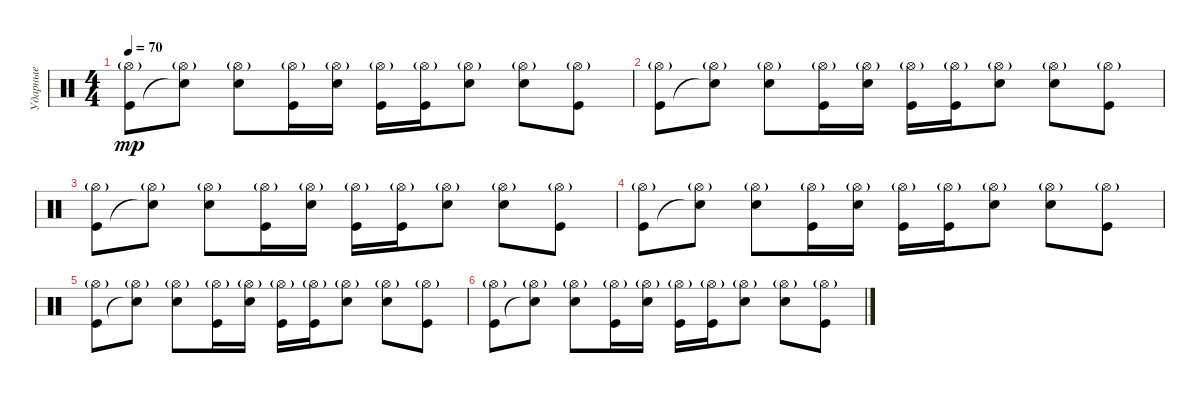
\track ("Ударные" "Ударные") {instrument percussion}
\staff {score}
\articulation defaults
\ts (4 4)
\tempo 70
\clef neutral
\ks c
("Hi-Hat (open)"{g} "Kick (hit)").8{dy mp} ("Hi-Hat (open)"{g} "Snare (hit)"{t}).8 ("Hi-Hat (open)"{g} "Snare (hit) 2").8 ("Hi-Hat (open)"{g} "Kick (hit)").16 ("Hi-Hat (open)"{g} "Snare (hit) 2").16 ("Hi-Hat (open)"{g} "Kick (hit)").16 ("Hi-Hat (open)"{g} "Kick (hit)").16 ("Hi-Hat (open)"{g} "Snare (hit) 2").8 ("Hi-Hat (open)"{g} "Snare (hit) 2").8 ("Hi-Hat (open)"{g} "Kick (hit)").8 |
("Hi-Hat (open)"{g} "Kick (hit)").8 ("Hi-Hat (open)"{g} "Snare (hit)"{t}).8 ("Hi-Hat (open)"{g} "Snare (hit) 2").8 ("Hi-Hat (open)"{g} "Kick (hit)").16 ("Hi-Hat (open)"{g} "Snare (hit) 2").16 ("Hi-Hat (open)"{g} "Kick (hit)").16 ("Hi-Hat (open)"{g} "Kick (hit)").16 ("Hi-Hat (open)"{g} "Snare (hit) 2").8 ("Hi-Hat (open)"{g} "Snare (hit) 2").8 ("Hi-Hat (open)"{g} "Kick (hit)").8 |
("Hi-Hat (open)"{g} "Kick (hit)").8 ("Hi-Hat (open)"{g} "Snare (hit)"{t}).8 ("Hi-Hat (open)"{g} "Snare (hit) 2").8 ("Hi-Hat (open)"{g} "Kick (hit)").16 ("Hi-Hat (open)"{g} "Snare (hit) 2").16 ("Hi-Hat (open)"{g} "Kick (hit)").16 ("Hi-Hat (open)"{g} "Kick (hit)").16 ("Hi-Hat (open)"{g} "Snare (hit) 2").8 ("Hi-Hat (open)"{g} "Snare (hit) 2").8 ("Hi-Hat (open)"{g} "Kick (hit)").8 |
("Hi-Hat (open)"{g} "Kick (hit)").8 ("Hi-Hat (open)"{g} "Snare (hit)"{t}).8 ("Hi-Hat (open)"{g} "Snare (hit) 2").8 ("Hi-Hat (open)"{g} "Kick (hit)").16 ("Hi-Hat (open)"{g} "Snare (hit) 2").16 ("Hi-Hat (open)"{g} "Kick (hit)").16 ("Hi-Hat (open)"{g} "Kick (hit)").16 ("Hi-Hat (open)"{g} "Snare (hit) 2").8 ("Hi-Hat (open)"{g} "Snare (hit) 2").8 ("Hi-Hat (open)"{g} "Kick (hit)").8 |
("Hi-Hat (open)"{g} "Kick (hit)").8 ("Hi-Hat (open)"{g} "Snare (hit)"{t}).8 ("Hi-Hat (open)"{g} "Snare (hit) 2").8 ("Hi-Hat (open)"{g} "Kick (hit)").16 ("Hi-Hat (open)"{g} "Snare (hit) 2").16 ("Hi-Hat (open)"{g} "Kick (hit)").16 ("Hi-Hat (open)"{g} "Kick (hit)").16 ("Hi-Hat (open)"{g} "Snare (hit) 2").8 ("Hi-Hat (open)"{g} "Snare (hit) 2").8 ("Hi-Hat (open)"{g} "Kick (hit)").8 |
("Hi-Hat (open)"{g} "Kick (hit)").8 ("Hi-Hat (open)"{g} "Snare (hit)"{t}).8 ("Hi-Hat (open)"{g} "Snare (hit) 2").8 ("Hi-Hat (open)"{g} "Kick (hit)").16 ("Hi-Hat (open)"{g} "Snare (hit) 2").16 ("Hi-Hat (open)"{g} "Kick (hit)").16 ("Hi-Hat (open)"{g} "Kick (hit)").16 ("Hi-Hat (open)"{g} "Snare (hit) 2").8 ("Hi-Hat (open)"{g} "Snare (hit) 2").8 ("Hi-Hat (open)"{g} "Kick (hit)").8
